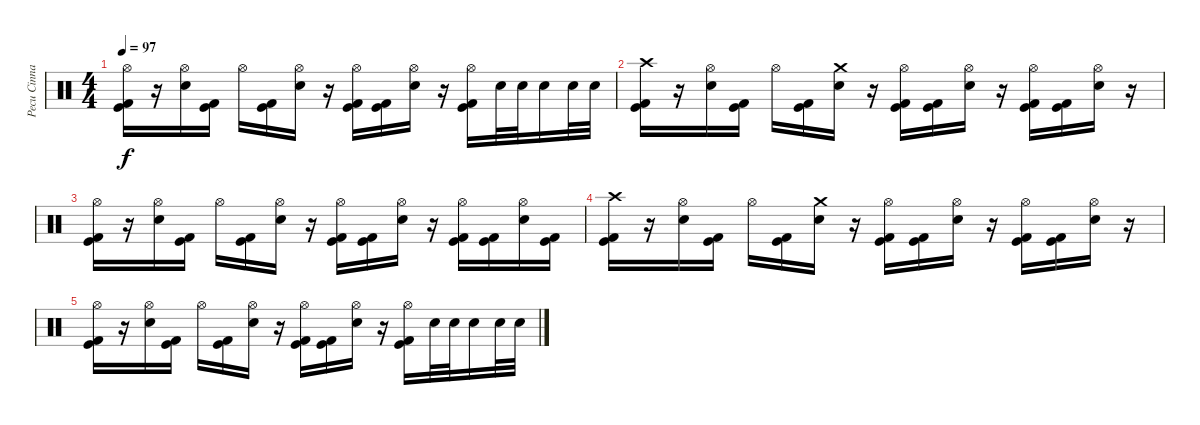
\track ("Pecu Cinnari" "Pecu Cinna") {instrument percussion}
\staff {score}
\articulation defaults
\ts (4 4)
\tempo 97
\clef neutral
\ks c
("Hi-Hat (open)" "Kick (hit)" "Kick (hit) 2").16{dy f} r.16 ("Hi-Hat (open)" "Electric Snare (hit)").16 ("Kick (hit)" "Kick (hit) 2").16 "Hi-Hat (open)".16 ("Kick (hit)" "Kick (hit) 2").16 ("Hi-Hat (open)" "Electric Snare (hit)").16 r.16 ("Hi-Hat (open)" "Kick (hit)" "Kick (hit) 2").16 ("Kick (hit)" "Kick (hit) 2").16 ("Hi-Hat (open)" "Electric Snare (hit)").16 r.16 ("Hi-Hat (open)" "Kick (hit)" "Kick (hit) 2").16 "Electric Snare (hit)".32 "Electric Snare (hit)".32 "Electric Snare (hit)".16 "Electric Snare (hit)".32 "Electric Snare (hit)".32 |
("Crash high (hit)" "Kick (hit)" "Kick (hit) 2").16 r.16 ("Hi-Hat (open)" "Electric Snare (hit)").16 ("Kick (hit)" "Kick (hit) 2").16 "Hi-Hat (open)".16 ("Kick (hit)" "Kick (hit) 2").16 ("Crash medium (hit)" "Electric Snare (hit)").16 r.16 ("Hi-Hat (open)" "Kick (hit)" "Kick (hit) 2").16 ("Kick (hit)" "Kick (hit) 2").16 ("Hi-Hat (open)" "Electric Snare (hit)").16 r.16 ("Hi-Hat (open)" "Kick (hit)" "Kick (hit) 2").16 ("Kick (hit)" "Kick (hit) 2").16 ("Hi-Hat (open)" "Electric Snare (hit)").16 r.16 |
("Hi-Hat (open)" "Kick (hit)" "Kick (hit) 2").16 r.16 ("Hi-Hat (open)" "Electric Snare (hit)").16 ("Kick (hit)" "Kick (hit) 2").16 "Hi-Hat (open)".16 ("Kick (hit)" "Kick (hit) 2").16 ("Hi-Hat (open)" "Electric Snare (hit)").16 r.16 ("Hi-Hat (open)" "Kick (hit)" "Kick (hit) 2").16 ("Kick (hit)" "Kick (hit) 2").16 ("Hi-Hat (open)" "Electric Snare (hit)").16 r.16 ("Hi-Hat (open)" "Kick (hit)" "Kick (hit) 2").16 ("Kick (hit)" "Kick (hit) 2").16 ("Hi-Hat (open)" "Electric Snare (hit)").16 ("Kick (hit)" "Kick (hit) 2").16 |
("Crash high (hit)" "Kick (hit)" "Kick (hit) 2").16 r.16 ("Hi-Hat (open)" "Electric Snare (hit)").16 ("Kick (hit)" "Kick (hit) 2").16 "Hi-Hat (open)".16 ("Kick (hit)" "Kick (hit) 2").16 ("Crash medium (hit)" "Electric Snare (hit)").16 r.16 ("Hi-Hat (open)" "Kick (hit)" "Kick (hit) 2").16 ("Kick (hit)" "Kick (hit) 2").16 ("Hi-Hat (open)" "Electric Snare (hit)").16 r.16 ("Hi-Hat (open)" "Kick (hit)" "Kick (hit) 2").16 ("Kick (hit)" "Kick (hit) 2").16 ("Hi-Hat (open)" "Electric Snare (hit)").16 r.16 |
("Hi-Hat (open)" "Kick (hit)" "Kick (hit) 2").16 r.16 ("Hi-Hat (open)" "Electric Snare (hit)").16 ("Kick (hit)" "Kick (hit) 2").16 "Hi-Hat (open)".16 ("Kick (hit)" "Kick (hit) 2").16 ("Hi-Hat (open)" "Electric Snare (hit)").16 r.16 ("Hi-Hat (open)" "Kick (hit)" "Kick (hit) 2").16 ("Kick (hit)" "Kick (hit) 2").16 ("Hi-Hat (open)" "Electric Snare (hit)").16 r.16 ("Hi-Hat (open)" "Kick (hit)" "Kick (hit) 2").16 "Electric Snare (hit)".32 "Electric Snare (hit)".32 "Electric Snare (hit)".16 "Electric Snare (hit)".32 "Electric Snare (hit)".32
